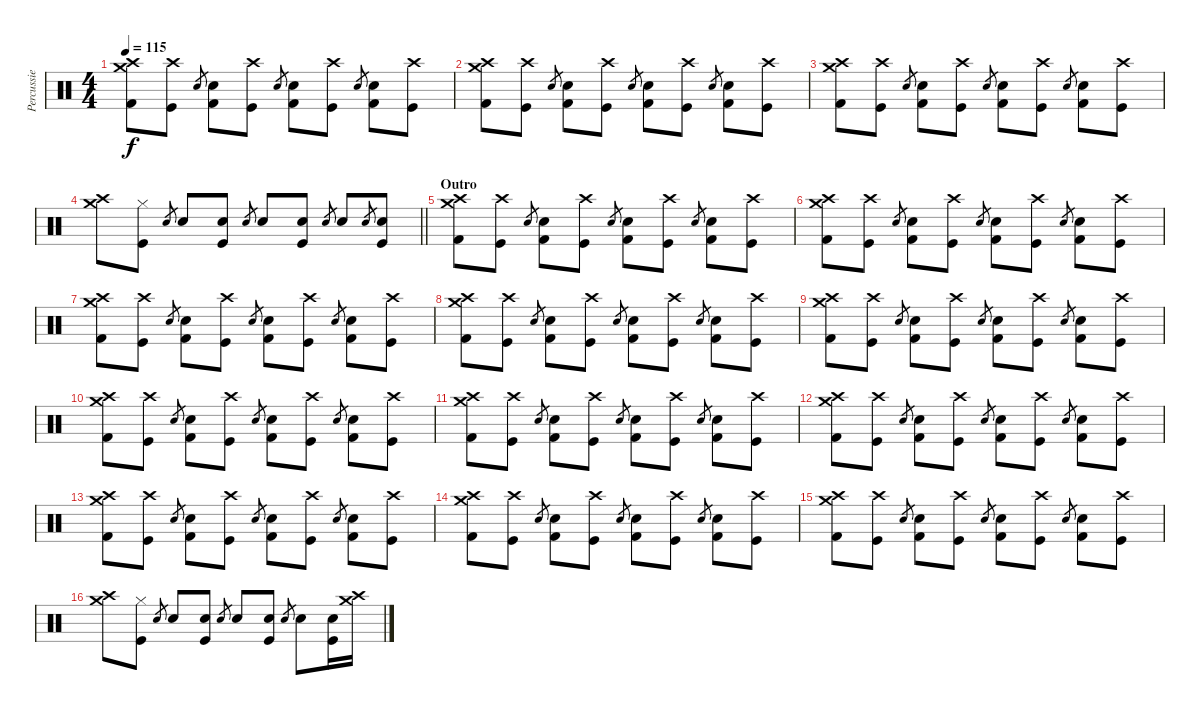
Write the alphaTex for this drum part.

\track ("Percussie" "Percussie") {instrument percussion}
\staff {score}
\articulation defaults
\ts (4 4)
\tempo 115
\clef neutral
\ks c
("Crash medium (hit)" "Crash high (hit)" "Kick (hit) 2").8{dy f} ("Crash high (hit)" "Kick (hit)").8 "Snare (hit) 2".8{gr} ("Snare (hit) 2" "Kick (hit) 2").8 ("Crash high (hit)" "Kick (hit)").8 "Snare (hit) 2".8{gr} ("Snare (hit) 2" "Kick (hit) 2").8 ("Crash high (hit)" "Kick (hit)").8 "Snare (hit) 2".8{gr} ("Snare (hit) 2" "Kick (hit) 2").8 ("Crash high (hit)" "Kick (hit)").8 |
("Crash medium (hit)" "Crash high (hit)" "Kick (hit) 2").8 ("Crash high (hit)" "Kick (hit)").8 "Snare (hit) 2".8{gr} ("Snare (hit) 2" "Kick (hit) 2").8 ("Crash high (hit)" "Kick (hit)").8 "Snare (hit) 2".8{gr} ("Snare (hit) 2" "Kick (hit) 2").8 ("Crash high (hit)" "Kick (hit)").8 "Snare (hit) 2".8{gr} ("Snare (hit) 2" "Kick (hit) 2").8 ("Crash high (hit)" "Kick (hit)").8 |
("Crash medium (hit)" "Crash high (hit)" "Kick (hit) 2").8 ("Crash high (hit)" "Kick (hit)").8 "Snare (hit) 2".8{gr} ("Snare (hit) 2" "Kick (hit) 2").8 ("Crash high (hit)" "Kick (hit)").8 "Snare (hit) 2".8{gr} ("Snare (hit) 2" "Kick (hit) 2").8 ("Crash high (hit)" "Kick (hit)").8 "Snare (hit) 2".8{gr} ("Snare (hit) 2" "Kick (hit) 2").8 ("Crash high (hit)" "Kick (hit)").8 |
\barLineRight lightlight
("Crash medium (hit)" "Crash high (hit)").8 ("Hi-Hat (closed)" "Kick (hit)").8 "Snare (hit) 2".8{gr} "Snare (hit) 2".8 ("Snare (hit) 2" "Kick (hit)").8 "Snare (hit) 2".8{gr} "Snare (hit) 2".8 ("Snare (hit) 2" "Kick (hit)").8 "Snare (hit) 2".8{gr} "Snare (hit) 2".8 "Snare (hit) 2".8{gr} ("Snare (hit) 2" "Kick (hit)").8 |
\section ("" "Outro")
("Crash medium (hit)" "Crash high (hit)" "Kick (hit) 2").8 ("Crash high (hit)" "Kick (hit)").8 "Snare (hit) 2".8{gr} ("Snare (hit) 2" "Kick (hit) 2").8 ("Crash high (hit)" "Kick (hit)").8 "Snare (hit) 2".8{gr} ("Snare (hit) 2" "Kick (hit) 2").8 ("Crash high (hit)" "Kick (hit)").8 "Snare (hit) 2".8{gr} ("Snare (hit) 2" "Kick (hit) 2").8 ("Crash high (hit)" "Kick (hit)").8 |
("Crash medium (hit)" "Crash high (hit)" "Kick (hit) 2").8 ("Crash high (hit)" "Kick (hit)").8 "Snare (hit) 2".8{gr} ("Snare (hit) 2" "Kick (hit) 2").8 ("Crash high (hit)" "Kick (hit)").8 "Snare (hit) 2".8{gr} ("Snare (hit) 2" "Kick (hit) 2").8 ("Crash high (hit)" "Kick (hit)").8 "Snare (hit) 2".8{gr} ("Snare (hit) 2" "Kick (hit) 2").8 ("Crash high (hit)" "Kick (hit)").8 |
("Crash medium (hit)" "Crash high (hit)" "Kick (hit) 2").8 ("Crash high (hit)" "Kick (hit)").8 "Snare (hit) 2".8{gr} ("Snare (hit) 2" "Kick (hit) 2").8 ("Crash high (hit)" "Kick (hit)").8 "Snare (hit) 2".8{gr} ("Snare (hit) 2" "Kick (hit) 2").8 ("Crash high (hit)" "Kick (hit)").8 "Snare (hit) 2".8{gr} ("Snare (hit) 2" "Kick (hit) 2").8 ("Crash high (hit)" "Kick (hit)").8 |
("Crash medium (hit)" "Crash high (hit)" "Kick (hit) 2").8 ("Crash high (hit)" "Kick (hit)").8 "Snare (hit) 2".8{gr} ("Snare (hit) 2" "Kick (hit) 2").8 ("Crash high (hit)" "Kick (hit)").8 "Snare (hit) 2".8{gr} ("Snare (hit) 2" "Kick (hit) 2").8 ("Crash high (hit)" "Kick (hit)").8 "Snare (hit) 2".8{gr} ("Snare (hit) 2" "Kick (hit) 2").8 ("Crash high (hit)" "Kick (hit)").8 |
("Crash medium (hit)" "Crash high (hit)" "Kick (hit) 2").8 ("Crash high (hit)" "Kick (hit)").8 "Snare (hit) 2".8{gr} ("Snare (hit) 2" "Kick (hit) 2").8 ("Crash high (hit)" "Kick (hit)").8 "Snare (hit) 2".8{gr} ("Snare (hit) 2" "Kick (hit) 2").8 ("Crash high (hit)" "Kick (hit)").8 "Snare (hit) 2".8{gr} ("Snare (hit) 2" "Kick (hit) 2").8 ("Crash high (hit)" "Kick (hit)").8 |
("Crash medium (hit)" "Crash high (hit)" "Kick (hit) 2").8 ("Crash high (hit)" "Kick (hit)").8 "Snare (hit) 2".8{gr} ("Snare (hit) 2" "Kick (hit) 2").8 ("Crash high (hit)" "Kick (hit)").8 "Snare (hit) 2".8{gr} ("Snare (hit) 2" "Kick (hit) 2").8 ("Crash high (hit)" "Kick (hit)").8 "Snare (hit) 2".8{gr} ("Snare (hit) 2" "Kick (hit) 2").8 ("Crash high (hit)" "Kick (hit)").8 |
("Crash medium (hit)" "Crash high (hit)" "Kick (hit) 2").8 ("Crash high (hit)" "Kick (hit)").8 "Snare (hit) 2".8{gr} ("Snare (hit) 2" "Kick (hit) 2").8 ("Crash high (hit)" "Kick (hit)").8 "Snare (hit) 2".8{gr} ("Snare (hit) 2" "Kick (hit) 2").8 ("Crash high (hit)" "Kick (hit)").8 "Snare (hit) 2".8{gr} ("Snare (hit) 2" "Kick (hit) 2").8 ("Crash high (hit)" "Kick (hit)").8 |
("Crash medium (hit)" "Crash high (hit)" "Kick (hit) 2").8 ("Crash high (hit)" "Kick (hit)").8 "Snare (hit) 2".8{gr} ("Snare (hit) 2" "Kick (hit) 2").8 ("Crash high (hit)" "Kick (hit)").8 "Snare (hit) 2".8{gr} ("Snare (hit) 2" "Kick (hit) 2").8 ("Crash high (hit)" "Kick (hit)").8 "Snare (hit) 2".8{gr} ("Snare (hit) 2" "Kick (hit) 2").8 ("Crash high (hit)" "Kick (hit)").8 |
("Crash medium (hit)" "Crash high (hit)" "Kick (hit) 2").8 ("Crash high (hit)" "Kick (hit)").8 "Snare (hit) 2".8{gr} ("Snare (hit) 2" "Kick (hit) 2").8 ("Crash high (hit)" "Kick (hit)").8 "Snare (hit) 2".8{gr} ("Snare (hit) 2" "Kick (hit) 2").8 ("Crash high (hit)" "Kick (hit)").8 "Snare (hit) 2".8{gr} ("Snare (hit) 2" "Kick (hit) 2").8 ("Crash high (hit)" "Kick (hit)").8 |
("Crash medium (hit)" "Crash high (hit)" "Kick (hit) 2").8 ("Crash high (hit)" "Kick (hit)").8 "Snare (hit) 2".8{gr} ("Snare (hit) 2" "Kick (hit) 2").8 ("Crash high (hit)" "Kick (hit)").8 "Snare (hit) 2".8{gr} ("Snare (hit) 2" "Kick (hit) 2").8 ("Crash high (hit)" "Kick (hit)").8 "Snare (hit) 2".8{gr} ("Snare (hit) 2" "Kick (hit) 2").8 ("Crash high (hit)" "Kick (hit)").8 |
("Crash medium (hit)" "Crash high (hit)" "Kick (hit) 2").8 ("Crash high (hit)" "Kick (hit)").8 "Snare (hit) 2".8{gr} ("Snare (hit) 2" "Kick (hit) 2").8 ("Crash high (hit)" "Kick (hit)").8 "Snare (hit) 2".8{gr} ("Snare (hit) 2" "Kick (hit) 2").8 ("Crash high (hit)" "Kick (hit)").8 "Snare (hit) 2".8{gr} ("Snare (hit) 2" "Kick (hit) 2").8 ("Crash high (hit)" "Kick (hit)").8 |
("Crash medium (hit)" "Crash high (hit)").8 ("Hi-Hat (closed)" "Kick (hit)").8 "Snare (hit) 2".8{gr} "Snare (hit) 2".8 ("Snare (hit) 2" "Kick (hit)").8 "Snare (hit) 2".8{gr} "Snare (hit) 2".8 ("Snare (hit) 2" "Kick (hit)").8 "Snare (hit) 2".8{gr} "Snare (hit) 2".8 ("Snare (hit) 2" "Kick (hit)").16 ("Crash medium (hit)" "Crash high (hit)").16
